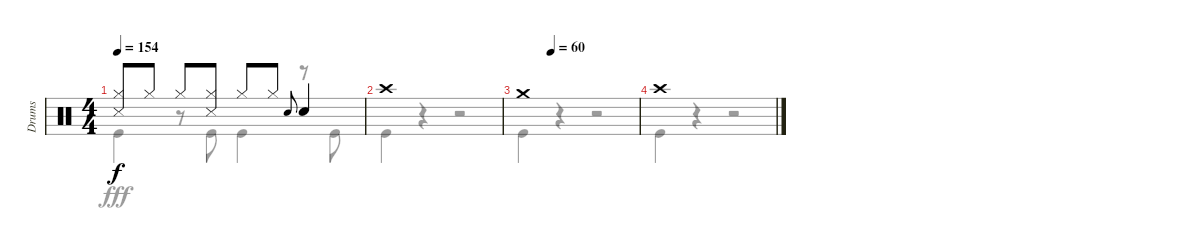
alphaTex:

\track ("Drums" "Drums") {instrument percussion}
\staff {score}
\articulation defaults
\voice
\ts (4 4)
\tempo 154
\clef neutral
\ks c
("Hi-Hat (closed)" "Snare (side stick) 3").8{dy f} "Hi-Hat (closed)".8 "Hi-Hat (closed)".8 ("Hi-Hat (closed)" "Snare (side stick) 3").8 "Hi-Hat (closed)".8 "Hi-Hat (closed)".8 "Snare (hit) 2".8{gr onbeat} "Snare (hit) 2".4 |
"Crash high (hit)".1 |
\tempo (60 0.25)
"Crash medium (hit)".1 |
"Crash high (hit)".1
\voice
\clef neutral
\ottava regular
\simile none
\ks c "Kick (hit)".4{dy fff}
r.8 "Kick (hit)".8 "Kick (hit)".4 r.8 "Kick (hit)".8 |
"Kick (hit)".4 r.4 r.2 |
"Kick (hit)".4 r.4 r.2 |
"Kick (hit)".4 r.4 r.2
